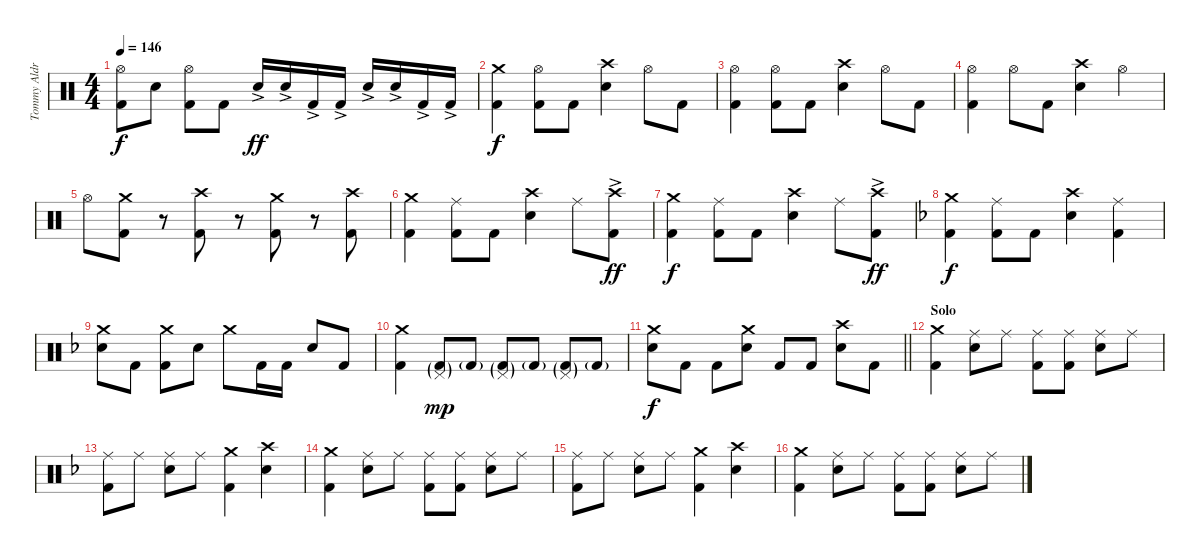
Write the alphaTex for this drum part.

\track ("Tommy Aldridge Drums" "Tommy Aldr") {instrument percussion}
\staff {score}
\articulation defaults
\ts (4 4)
\tempo 146
\clef neutral
\ks aminor
("Hi-Hat (open)" "Kick (hit) 2").8{dy f} "Electric Snare (hit)".8 ("Hi-Hat (open)" "Kick (hit) 2").8 "Kick (hit) 2".8 "Electric Snare (hit)"{ac}.16{dy ff} "Electric Snare (hit)"{ac}.16 "Kick (hit) 2"{ac}.16 "Kick (hit) 2"{ac}.16 "Electric Snare (hit)"{ac}.16 "Electric Snare (hit)"{ac}.16 "Kick (hit) 2"{ac}.16 "Kick (hit) 2"{ac}.16 |
("Crash medium (hit)" "Kick (hit) 2").4{dy f} ("Hi-Hat (open)" "Kick (hit) 2").8 "Kick (hit) 2".8 ("Crash high (hit)" "Electric Snare (hit)").4 "Hi-Hat (open)".8 "Kick (hit) 2".8 |
("Hi-Hat (open)" "Kick (hit) 2").4 ("Hi-Hat (open)" "Kick (hit) 2").8 "Kick (hit) 2".8 ("Crash high (hit)" "Electric Snare (hit)").4 "Hi-Hat (open)".8 "Kick (hit) 2".8 |
("Hi-Hat (open)" "Kick (hit) 2").4 "Hi-Hat (open)".8 "Kick (hit) 2".8 ("Crash high (hit)" "Electric Snare (hit)").4 "Hi-Hat (open)".4 |
"Hi-Hat (open)".8 ("Crash medium (hit)" "Kick (hit) 2").8 r.8 ("Crash high (hit)" "Kick (hit) 2").8 r.8 ("Crash medium (hit)" "Kick (hit) 2").8 r.8 ("Crash high (hit)" "Kick (hit) 2").8 |
("Crash medium (hit)" "Kick (hit) 2").4 ("Ride (middle)" "Kick (hit) 2").8 "Kick (hit) 2".8 ("Crash high (hit)" "Electric Snare (hit)").4 "Ride (middle)".8 ("Crash high (hit)"{ac} "Kick (hit) 2"{ac}).8{dy ff} |
("Crash medium (hit)" "Kick (hit) 2").4{dy f} ("Ride (middle)" "Kick (hit) 2").8 "Kick (hit) 2".8 ("Crash high (hit)" "Electric Snare (hit)").4 "Ride (middle)".8 ("Crash high (hit)"{ac} "Kick (hit) 2"{ac}).8{dy ff} |
\ks dminor
("Crash medium (hit)" "Kick (hit) 2").4{dy f} ("Ride (middle)" "Kick (hit) 2").8 "Kick (hit) 2".8 ("Crash high (hit)" "Electric Snare (hit)").4 ("Ride (middle)" "Kick (hit) 2").4 |
("Crash medium (hit)" "Electric Snare (hit)").8 "Kick (hit) 2".8 ("Crash medium (hit)" "Kick (hit) 2").8 "Electric Snare (hit)".8 "Crash medium (hit)".8 "Kick (hit) 2".16 "Kick (hit) 2".16 "Electric Snare (hit)".8 "Kick (hit) 2".8 |
("Crash medium (hit)" "Kick (hit) 2").4 ("Pedal Hi-Hat (hit)"{g} "Kick (hit) 2"{g}).8{dy mp} "Kick (hit) 2"{g}.8 ("Pedal Hi-Hat (hit)"{g} "Kick (hit) 2"{g}).8 "Kick (hit) 2"{g}.8 ("Pedal Hi-Hat (hit)"{g} "Kick (hit) 2"{g}).8 "Kick (hit) 2"{g}.8 |
\barLineRight lightlight
("Crash medium (hit)" "Electric Snare (hit)").8{dy f} "Kick (hit) 2".8 "Kick (hit) 2".8 ("Crash medium (hit)" "Electric Snare (hit)").8 "Kick (hit) 2".8 "Kick (hit) 2".8 ("Crash high (hit)" "Electric Snare (hit)").8 "Kick (hit) 2".8 |
\section ("" "Solo")
("Crash medium (hit)" "Kick (hit) 2").4 ("Ride (middle)" "Electric Snare (hit)").8 "Ride (middle)".8 ("Ride (middle)" "Kick (hit) 2").8 ("Ride (middle)" "Kick (hit) 2").8 ("Ride (middle)" "Electric Snare (hit)").8 "Ride (middle)".8 |
("Ride (middle)" "Kick (hit) 2").8 "Ride (middle)".8 ("Ride (middle)" "Electric Snare (hit)").8 "Ride (middle)".8 ("Crash medium (hit)" "Kick (hit) 2").4 ("Crash high (hit)" "Electric Snare (hit)").4 |
("Crash medium (hit)" "Kick (hit) 2").4 ("Ride (middle)" "Electric Snare (hit)").8 "Ride (middle)".8 ("Ride (middle)" "Kick (hit) 2").8 ("Ride (middle)" "Kick (hit) 2").8 ("Ride (middle)" "Electric Snare (hit)").8 "Ride (middle)".8 |
("Ride (middle)" "Kick (hit) 2").8 "Ride (middle)".8 ("Ride (middle)" "Electric Snare (hit)").8 "Ride (middle)".8 ("Crash medium (hit)" "Kick (hit) 2").4 ("Crash high (hit)" "Electric Snare (hit)").4 |
("Crash medium (hit)" "Kick (hit) 2").4 ("Ride (middle)" "Electric Snare (hit)").8 "Ride (middle)".8 ("Ride (middle)" "Kick (hit) 2").8 ("Ride (middle)" "Kick (hit) 2").8 ("Ride (middle)" "Electric Snare (hit)").8 "Ride (middle)".8
